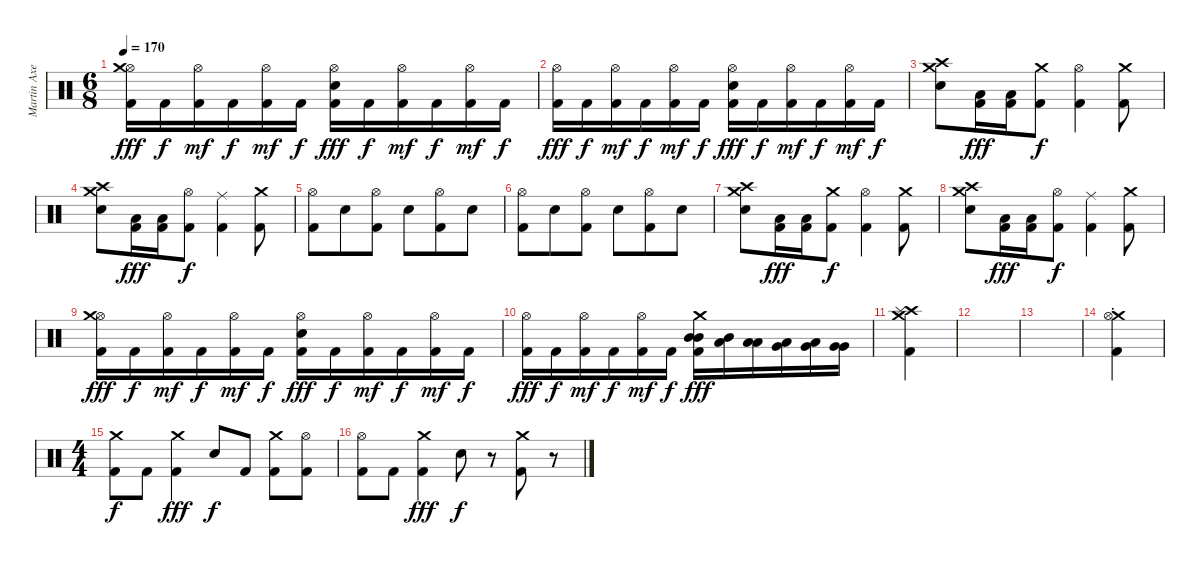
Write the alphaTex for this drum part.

\track ("Martin Axenrot" "Martin Axe") {instrument percussion}
\staff
\articulation defaults
\ts (6 8)
\tempo 170
\clef neutral
\ks c
("Hi-Hat (open)" "Crash medium (hit)" "Kick (hit) 2").16{dy fff} "Kick (hit) 2".16{dy f} ("Hi-Hat (open)" "Kick (hit) 2").16{dy mf} "Kick (hit) 2".16{dy f} ("Hi-Hat (open)" "Kick (hit) 2").16{dy mf} "Kick (hit) 2".16{dy f} ("Hi-Hat (open)" "Snare (hit) 2" "Kick (hit) 2").16{dy fff} "Kick (hit) 2".16{dy f} ("Hi-Hat (open)" "Kick (hit) 2").16{dy mf} "Kick (hit) 2".16{dy f} ("Hi-Hat (open)" "Kick (hit) 2").16{dy mf} "Kick (hit) 2".16{dy f} |
("Hi-Hat (open)" "Kick (hit) 2").16{dy fff} "Kick (hit) 2".16{dy f} ("Hi-Hat (open)" "Kick (hit) 2").16{dy mf} "Kick (hit) 2".16{dy f} ("Hi-Hat (open)" "Kick (hit) 2").16{dy mf} "Kick (hit) 2".16{dy f} ("Hi-Hat (open)" "Snare (hit) 2" "Kick (hit) 2").16{dy fff} "Kick (hit) 2".16{dy f} ("Hi-Hat (open)" "Kick (hit) 2").16{dy mf} "Kick (hit) 2".16{dy f} ("Hi-Hat (open)" "Kick (hit) 2").16{dy mf} "Kick (hit) 2".16{dy f} |
("Crash high (hit)" "Crash medium (hit)" "Snare (hit) 2").8 ("Low Tom (hit)" "Kick (hit) 2").16{dy fff} ("Low Tom (hit)" "Kick (hit) 2").16 ("Crash medium (hit)" "Kick (hit) 2").8{dy f} ("Hi-Hat (open)" "Kick (hit) 2").4 ("Crash medium (hit)" "Kick (hit) 2").8 |
("Crash high (hit)" "Crash medium (hit)" "Snare (hit) 2").8 ("Low Tom (hit)" "Kick (hit) 2").16{dy fff} ("Low Tom (hit)" "Kick (hit) 2").16 ("Hi-Hat (open)" "Kick (hit) 2").8{dy f} ("Ride (middle)" "Kick (hit) 2").4 ("Crash medium (hit)" "Kick (hit) 2").8 |
("Hi-Hat (open)" "Kick (hit) 2").8 "Snare (hit) 2".8 ("Hi-Hat (open)" "Kick (hit) 2").8 "Snare (hit) 2".8 ("Hi-Hat (open)" "Kick (hit) 2").8 "Snare (hit) 2".8 |
("Hi-Hat (open)" "Kick (hit) 2").8 "Snare (hit) 2".8 ("Hi-Hat (open)" "Kick (hit) 2").8 "Snare (hit) 2".8 ("Hi-Hat (open)" "Kick (hit) 2").8 "Snare (hit) 2".8 |
("Crash high (hit)" "Crash medium (hit)" "Snare (hit) 2").8 ("Low Tom (hit)" "Kick (hit) 2").16{dy fff} ("Low Tom (hit)" "Kick (hit) 2").16 ("Crash medium (hit)" "Kick (hit) 2").8{dy f} ("Hi-Hat (open)" "Kick (hit) 2").4 ("Crash medium (hit)" "Kick (hit) 2").8 |
("Crash high (hit)" "Crash medium (hit)" "Snare (hit) 2").8 ("Low Tom (hit)" "Kick (hit) 2").16{dy fff} ("Low Tom (hit)" "Kick (hit) 2").16 ("Hi-Hat (open)" "Kick (hit) 2").8{dy f} ("Ride (middle)" "Kick (hit) 2").4 ("Crash medium (hit)" "Kick (hit) 2").8 |
("Hi-Hat (open)" "Crash medium (hit)" "Kick (hit) 2").16{dy fff} "Kick (hit) 2".16{dy f} ("Hi-Hat (open)" "Kick (hit) 2").16{dy mf} "Kick (hit) 2".16{dy f} ("Hi-Hat (open)" "Kick (hit) 2").16{dy mf} "Kick (hit) 2".16{dy f} ("Hi-Hat (open)" "Snare (hit) 2" "Kick (hit) 2").16{dy fff} "Kick (hit) 2".16{dy f} ("Hi-Hat (open)" "Kick (hit) 2").16{dy mf} "Kick (hit) 2".16{dy f} ("Hi-Hat (open)" "Kick (hit) 2").16{dy mf} "Kick (hit) 2".16{dy f} |
("Hi-Hat (open)" "Kick (hit) 2").16{dy fff} "Kick (hit) 2".16{dy f} ("Hi-Hat (open)" "Kick (hit) 2").16{dy mf} "Kick (hit) 2".16{dy f} ("Hi-Hat (open)" "Kick (hit) 2").16{dy mf} "Kick (hit) 2".16{dy f} ("Crash medium (hit)" "Mid Tom (hit)" "Mid Tom (hit)" "Kick (hit) 2").16{dy fff} ("Mid Tom (hit)" "Low Tom (hit)").16 ("Low Tom (hit)" "Low Tom (hit)").16 ("Low Tom (hit)" "Very Low Tom (hit)").16 ("Low Tom (hit)" "Very Low Tom (hit)").16 ("Very Low Tom (hit)" "Very Low Tom (hit)").16 |
("Crash high (hit)" "Splash (hit)" "Crash medium (hit)" "Kick (hit) 2").4 |
|
|
("Crash medium (hit)"{st} "Hi-Hat (open)"{st} "Kick (hit) 2"{st}).4 |
\ts (4 4)
("Crash medium (hit)" "Kick (hit) 2").8{dy f} "Kick (hit) 2".8 ("Crash medium (hit)" "Kick (hit) 2").4{dy fff} "Snare (hit) 2".8{dy f} "Kick (hit) 2".8 ("Crash medium (hit)" "Kick (hit) 2").8 ("Hi-Hat (open)" "Kick (hit) 2").8 |
("Hi-Hat (open)" "Kick (hit) 2").8 "Kick (hit) 2".8 ("Crash medium (hit)" "Kick (hit) 2").4{dy fff} "Snare (hit) 2".8{dy f} r.8 ("Crash medium (hit)" "Kick (hit) 2").8 r.8
